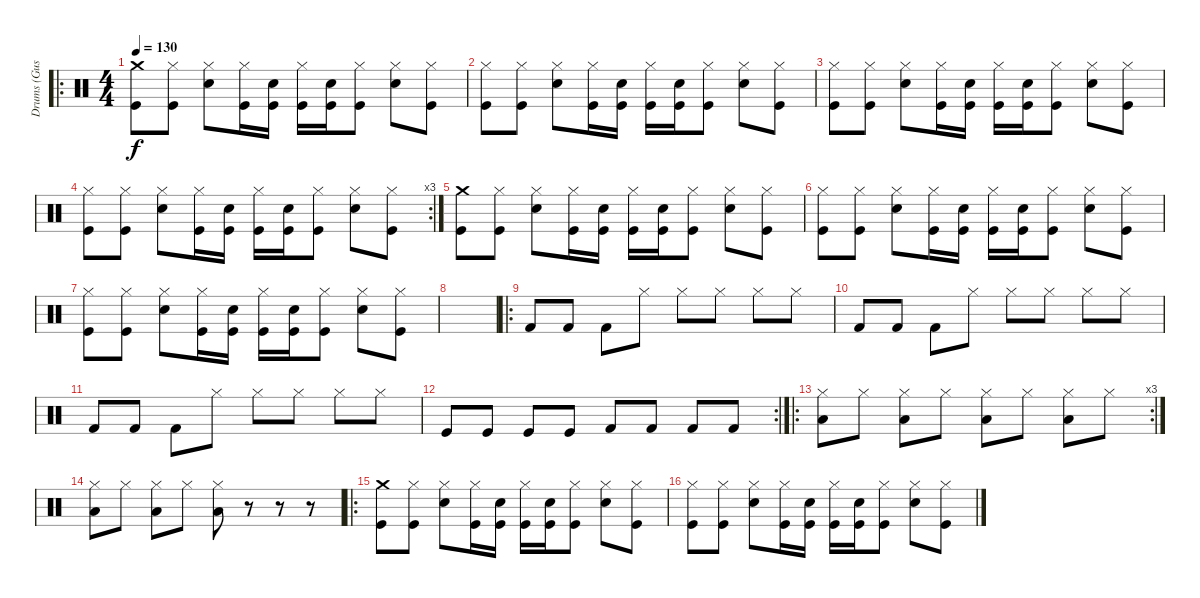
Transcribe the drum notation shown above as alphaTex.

\track ("Drums (Gustav) " "Drums (Gus") {instrument percussion}
\staff {score}
\articulation defaults
\ro
\ts (4 4)
\tempo 130
\clef neutral
\ks c
("Kick (hit)" "Crash medium (hit)").8{dy f} ("Kick (hit)" "Hi-Hat (closed)").8 ("Snare (hit) 2" "Hi-Hat (closed)").8 ("Kick (hit)" "Hi-Hat (closed)").16 ("Snare (hit) 2" "Kick (hit)").16 ("Kick (hit)" "Hi-Hat (closed)").16 ("Snare (hit) 2" "Kick (hit)").16 ("Kick (hit)" "Hi-Hat (closed)").8 ("Snare (hit) 2" "Hi-Hat (closed)").8 ("Kick (hit)" "Hi-Hat (closed)").8 |
("Kick (hit)" "Hi-Hat (closed)").8 ("Kick (hit)" "Hi-Hat (closed)").8 ("Snare (hit) 2" "Hi-Hat (closed)").8 ("Kick (hit)" "Hi-Hat (closed)").16 ("Snare (hit) 2" "Kick (hit)").16 ("Kick (hit)" "Hi-Hat (closed)").16 ("Snare (hit) 2" "Kick (hit)").16 ("Kick (hit)" "Hi-Hat (closed)").8 ("Snare (hit) 2" "Hi-Hat (closed)").8 ("Kick (hit)" "Hi-Hat (closed)").8 |
("Kick (hit)" "Hi-Hat (closed)").8 ("Kick (hit)" "Hi-Hat (closed)").8 ("Snare (hit) 2" "Hi-Hat (closed)").8 ("Kick (hit)" "Hi-Hat (closed)").16 ("Snare (hit) 2" "Kick (hit)").16 ("Kick (hit)" "Hi-Hat (closed)").16 ("Snare (hit) 2" "Kick (hit)").16 ("Kick (hit)" "Hi-Hat (closed)").8 ("Snare (hit) 2" "Hi-Hat (closed)").8 ("Kick (hit)" "Hi-Hat (closed)").8 |
\rc 3
("Kick (hit)" "Hi-Hat (closed)").8 ("Kick (hit)" "Hi-Hat (closed)").8 ("Snare (hit) 2" "Hi-Hat (closed)").8 ("Kick (hit)" "Hi-Hat (closed)").16 ("Snare (hit) 2" "Kick (hit)").16 ("Kick (hit)" "Hi-Hat (closed)").16 ("Snare (hit) 2" "Kick (hit)").16 ("Kick (hit)" "Hi-Hat (closed)").8 ("Snare (hit) 2" "Hi-Hat (closed)").8 ("Kick (hit)" "Hi-Hat (closed)").8 |
("Kick (hit)" "Crash medium (hit)").8 ("Kick (hit)" "Hi-Hat (closed)").8 ("Snare (hit) 2" "Hi-Hat (closed)").8 ("Kick (hit)" "Hi-Hat (closed)").16 ("Snare (hit) 2" "Kick (hit)").16 ("Kick (hit)" "Hi-Hat (closed)").16 ("Snare (hit) 2" "Kick (hit)").16 ("Kick (hit)" "Hi-Hat (closed)").8 ("Snare (hit) 2" "Hi-Hat (closed)").8 ("Kick (hit)" "Hi-Hat (closed)").8 |
("Kick (hit)" "Hi-Hat (closed)").8 ("Kick (hit)" "Hi-Hat (closed)").8 ("Snare (hit) 2" "Hi-Hat (closed)").8 ("Kick (hit)" "Hi-Hat (closed)").16 ("Snare (hit) 2" "Kick (hit)").16 ("Kick (hit)" "Hi-Hat (closed)").16 ("Snare (hit) 2" "Kick (hit)").16 ("Kick (hit)" "Hi-Hat (closed)").8 ("Snare (hit) 2" "Hi-Hat (closed)").8 ("Kick (hit)" "Hi-Hat (closed)").8 |
("Kick (hit)" "Hi-Hat (closed)").8 ("Kick (hit)" "Hi-Hat (closed)").8 ("Snare (hit) 2" "Hi-Hat (closed)").8 ("Kick (hit)" "Hi-Hat (closed)").16 ("Snare (hit) 2" "Kick (hit)").16 ("Kick (hit)" "Hi-Hat (closed)").16 ("Snare (hit) 2" "Kick (hit)").16 ("Kick (hit)" "Hi-Hat (closed)").8 ("Snare (hit) 2" "Hi-Hat (closed)").8 ("Kick (hit)" "Hi-Hat (closed)").8 |
|
\ro "Kick (hit) 2".8 "Kick (hit) 2".8 "Kick (hit) 2".8 "Hi-Hat (closed)".8 "Hi-Hat (closed)".8 "Hi-Hat (closed)".8 "Hi-Hat (closed)".8 "Hi-Hat (closed)".8
|
"Kick (hit) 2".8 "Kick (hit) 2".8 "Kick (hit) 2".8 "Hi-Hat (closed)".8 "Hi-Hat (closed)".8 "Hi-Hat (closed)".8 "Hi-Hat (closed)".8 "Hi-Hat (closed)".8 |
"Kick (hit) 2".8 "Kick (hit) 2".8 "Kick (hit) 2".8 "Hi-Hat (closed)".8 "Hi-Hat (closed)".8 "Hi-Hat (closed)".8 "Hi-Hat (closed)".8 "Hi-Hat (closed)".8 |
\rc 2 "Kick (hit)".8 "Kick (hit)".8 "Kick (hit)".8 "Kick (hit)".8 "Kick (hit) 2".8 "Kick (hit) 2".8 "Kick (hit) 2".8 "Kick (hit) 2".8
|
\ro
\rc 3
("Low Floor Tom (hit)" "Hi-Hat (closed)").8 "Hi-Hat (closed)".8 ("Low Floor Tom (hit)" "Hi-Hat (closed)").8 "Hi-Hat (closed)".8 ("Low Floor Tom (hit)" "Hi-Hat (closed)").8 "Hi-Hat (closed)".8 ("Low Floor Tom (hit)" "Hi-Hat (closed)").8 "Hi-Hat (closed)".8 |
("Low Floor Tom (hit)" "Hi-Hat (closed)").8 "Hi-Hat (closed)".8 ("Low Floor Tom (hit)" "Hi-Hat (closed)").8 "Hi-Hat (closed)".8 ("Low Floor Tom (hit)" "Hi-Hat (closed)").8 r.8 r.8 r.8 |
\ro
("Kick (hit)" "Crash medium (hit)").8 ("Kick (hit)" "Hi-Hat (closed)").8 ("Snare (hit) 2" "Hi-Hat (closed)").8 ("Kick (hit)" "Hi-Hat (closed)").16 ("Snare (hit) 2" "Kick (hit)").16 ("Kick (hit)" "Hi-Hat (closed)").16 ("Snare (hit) 2" "Kick (hit)").16 ("Kick (hit)" "Hi-Hat (closed)").8 ("Snare (hit) 2" "Hi-Hat (closed)").8 ("Kick (hit)" "Hi-Hat (closed)").8 |
("Kick (hit)" "Hi-Hat (closed)").8 ("Kick (hit)" "Hi-Hat (closed)").8 ("Snare (hit) 2" "Hi-Hat (closed)").8 ("Kick (hit)" "Hi-Hat (closed)").16 ("Snare (hit) 2" "Kick (hit)").16 ("Kick (hit)" "Hi-Hat (closed)").16 ("Snare (hit) 2" "Kick (hit)").16 ("Kick (hit)" "Hi-Hat (closed)").8 ("Snare (hit) 2" "Hi-Hat (closed)").8 ("Kick (hit)" "Hi-Hat (closed)").8
